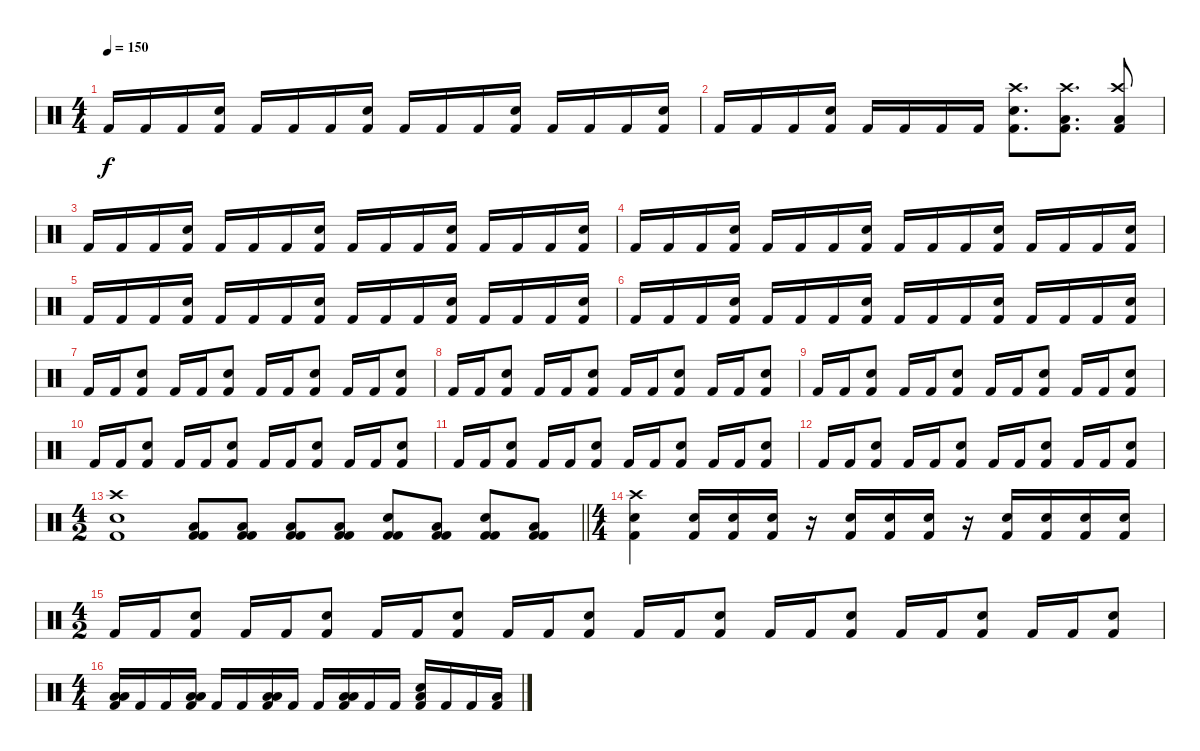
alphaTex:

\track "" {instrument percussion}
\staff {score}
\articulation defaults
\ts (4 4)
\tempo 150
\clef neutral
\ks c "Kick (hit) 2".16{dy f} "Kick (hit) 2".16 "Kick (hit) 2".16
("Kick (hit) 2" "Snare (hit) 2").16 "Kick (hit) 2".16 "Kick (hit) 2".16 "Kick (hit) 2".16 ("Kick (hit) 2" "Snare (hit) 2").16 "Kick (hit) 2".16 "Kick (hit) 2".16 "Kick (hit) 2".16 ("Kick (hit) 2" "Snare (hit) 2").16 "Kick (hit) 2".16 "Kick (hit) 2".16 "Kick (hit) 2".16 ("Kick (hit) 2" "Snare (hit) 2").16 |
"Kick (hit) 2".16 "Kick (hit) 2".16 "Kick (hit) 2".16 ("Kick (hit) 2" "Snare (hit) 2").16 "Kick (hit) 2".16 "Kick (hit) 2".16 "Kick (hit) 2".16 "Kick (hit) 2".16 ("Kick (hit) 2" "Snare (hit) 2" "Crash high (hit)").8{d} ("Kick (hit) 2" "Low Tom (hit)" "Crash high (hit)").8{d} ("Kick (hit) 2" "Low Tom (hit)" "Crash high (hit)").8 |
"Kick (hit) 2".16 "Kick (hit) 2".16 "Kick (hit) 2".16 ("Kick (hit) 2" "Snare (hit) 2").16 "Kick (hit) 2".16 "Kick (hit) 2".16 "Kick (hit) 2".16 ("Kick (hit) 2" "Snare (hit) 2").16 "Kick (hit) 2".16 "Kick (hit) 2".16 "Kick (hit) 2".16 ("Kick (hit) 2" "Snare (hit) 2").16 "Kick (hit) 2".16 "Kick (hit) 2".16 "Kick (hit) 2".16 ("Kick (hit) 2" "Snare (hit) 2").16 |
"Kick (hit) 2".16 "Kick (hit) 2".16 "Kick (hit) 2".16 ("Kick (hit) 2" "Snare (hit) 2").16 "Kick (hit) 2".16 "Kick (hit) 2".16 "Kick (hit) 2".16 ("Kick (hit) 2" "Snare (hit) 2").16 "Kick (hit) 2".16 "Kick (hit) 2".16 "Kick (hit) 2".16 ("Kick (hit) 2" "Snare (hit) 2").16 "Kick (hit) 2".16 "Kick (hit) 2".16 "Kick (hit) 2".16 ("Kick (hit) 2" "Snare (hit) 2").16 |
"Kick (hit) 2".16 "Kick (hit) 2".16 "Kick (hit) 2".16 ("Kick (hit) 2" "Snare (hit) 2").16 "Kick (hit) 2".16 "Kick (hit) 2".16 "Kick (hit) 2".16 ("Kick (hit) 2" "Snare (hit) 2").16 "Kick (hit) 2".16 "Kick (hit) 2".16 "Kick (hit) 2".16 ("Kick (hit) 2" "Snare (hit) 2").16 "Kick (hit) 2".16 "Kick (hit) 2".16 "Kick (hit) 2".16 ("Kick (hit) 2" "Snare (hit) 2").16 |
"Kick (hit) 2".16 "Kick (hit) 2".16 "Kick (hit) 2".16 ("Kick (hit) 2" "Snare (hit) 2").16 "Kick (hit) 2".16 "Kick (hit) 2".16 "Kick (hit) 2".16 ("Kick (hit) 2" "Snare (hit) 2").16 "Kick (hit) 2".16 "Kick (hit) 2".16 "Kick (hit) 2".16 ("Kick (hit) 2" "Snare (hit) 2").16 "Kick (hit) 2".16 "Kick (hit) 2".16 "Kick (hit) 2".16 ("Kick (hit) 2" "Snare (hit) 2").16 |
"Kick (hit) 2".16 "Kick (hit) 2".16 ("Kick (hit) 2" "Snare (hit) 2").8 "Kick (hit) 2".16 "Kick (hit) 2".16 ("Kick (hit) 2" "Snare (hit) 2").8 "Kick (hit) 2".16 "Kick (hit) 2".16 ("Kick (hit) 2" "Snare (hit) 2").8 "Kick (hit) 2".16 "Kick (hit) 2".16 ("Kick (hit) 2" "Snare (hit) 2").8 |
"Kick (hit) 2".16 "Kick (hit) 2".16 ("Kick (hit) 2" "Snare (hit) 2").8 "Kick (hit) 2".16 "Kick (hit) 2".16 ("Kick (hit) 2" "Snare (hit) 2").8 "Kick (hit) 2".16 "Kick (hit) 2".16 ("Kick (hit) 2" "Snare (hit) 2").8 "Kick (hit) 2".16 "Kick (hit) 2".16 ("Kick (hit) 2" "Snare (hit) 2").8 |
"Kick (hit) 2".16 "Kick (hit) 2".16 ("Kick (hit) 2" "Snare (hit) 2").8 "Kick (hit) 2".16 "Kick (hit) 2".16 ("Kick (hit) 2" "Snare (hit) 2").8 "Kick (hit) 2".16 "Kick (hit) 2".16 ("Kick (hit) 2" "Snare (hit) 2").8 "Kick (hit) 2".16 "Kick (hit) 2".16 ("Kick (hit) 2" "Snare (hit) 2").8 |
"Kick (hit) 2".16 "Kick (hit) 2".16 ("Kick (hit) 2" "Snare (hit) 2").8 "Kick (hit) 2".16 "Kick (hit) 2".16 ("Kick (hit) 2" "Snare (hit) 2").8 "Kick (hit) 2".16 "Kick (hit) 2".16 ("Kick (hit) 2" "Snare (hit) 2").8 "Kick (hit) 2".16 "Kick (hit) 2".16 ("Kick (hit) 2" "Snare (hit) 2").8 |
"Kick (hit) 2".16 "Kick (hit) 2".16 ("Kick (hit) 2" "Snare (hit) 2").8 "Kick (hit) 2".16 "Kick (hit) 2".16 ("Kick (hit) 2" "Snare (hit) 2").8 "Kick (hit) 2".16 "Kick (hit) 2".16 ("Kick (hit) 2" "Snare (hit) 2").8 "Kick (hit) 2".16 "Kick (hit) 2".16 ("Kick (hit) 2" "Snare (hit) 2").8 |
"Kick (hit) 2".16 "Kick (hit) 2".16 ("Kick (hit) 2" "Snare (hit) 2").8 "Kick (hit) 2".16 "Kick (hit) 2".16 ("Kick (hit) 2" "Snare (hit) 2").8 "Kick (hit) 2".16 "Kick (hit) 2".16 ("Kick (hit) 2" "Snare (hit) 2").8 "Kick (hit) 2".16 "Kick (hit) 2".16 ("Kick (hit) 2" "Snare (hit) 2").8 |
\ts (4 2)
\barLineRight lightlight
("Kick (hit) 2" "Snare (hit) 2" "Crash high (hit)").1 ("Kick (hit) 2" "Kick (hit) 2" "Low Tom (hit)").8 ("Kick (hit) 2" "Kick (hit) 2" "Low Tom (hit)").8 ("Kick (hit) 2" "Kick (hit) 2" "Low Tom (hit)").8 ("Kick (hit) 2" "Kick (hit) 2" "Low Tom (hit)").8 ("Kick (hit) 2" "Kick (hit) 2" "Snare (hit) 2").8 ("Kick (hit) 2" "Kick (hit) 2" "Low Tom (hit)").8 ("Kick (hit) 2" "Kick (hit) 2" "Snare (hit) 2").8 ("Kick (hit) 2" "Kick (hit) 2" "Low Tom (hit)").8 |
\ts (4 4)
("Kick (hit) 2" "Snare (hit) 2" "Crash high (hit)").4 ("Kick (hit) 2" "Snare (hit) 2").16 ("Kick (hit) 2" "Snare (hit) 2").16 ("Kick (hit) 2" "Snare (hit) 2").16 r.16 ("Kick (hit) 2" "Snare (hit) 2").16 ("Kick (hit) 2" "Snare (hit) 2").16 ("Kick (hit) 2" "Snare (hit) 2").16 r.16 ("Kick (hit) 2" "Snare (hit) 2").16 ("Kick (hit) 2" "Snare (hit) 2").16 ("Kick (hit) 2" "Snare (hit) 2").16 ("Kick (hit) 2" "Snare (hit) 2").16 |
\ts (4 2)
"Kick (hit) 2".16 "Kick (hit) 2".16 ("Kick (hit) 2" "Snare (hit) 2").8 "Kick (hit) 2".16 "Kick (hit) 2".16 ("Kick (hit) 2" "Snare (hit) 2").8 "Kick (hit) 2".16 "Kick (hit) 2".16 ("Kick (hit) 2" "Snare (hit) 2").8 "Kick (hit) 2".16 "Kick (hit) 2".16 ("Kick (hit) 2" "Snare (hit) 2").8 "Kick (hit) 2".16 "Kick (hit) 2".16 ("Kick (hit) 2" "Snare (hit) 2").8 "Kick (hit) 2".16 "Kick (hit) 2".16 ("Kick (hit) 2" "Snare (hit) 2").8 "Kick (hit) 2".16 "Kick (hit) 2".16 ("Kick (hit) 2" "Snare (hit) 2").8 "Kick (hit) 2".16 "Kick (hit) 2".16 ("Kick (hit) 2" "Snare (hit) 2").8 |
\ts (4 4)
("Kick (hit) 2" "Low Tom (hit)" "Low Tom (hit)").16 "Kick (hit) 2".16 "Kick (hit) 2".16 ("Kick (hit) 2" "Low Tom (hit)" "Low Tom (hit)").16 "Kick (hit) 2".16 "Kick (hit) 2".16 ("Kick (hit) 2" "Low Tom (hit)" "Low Tom (hit)").16 "Kick (hit) 2".16 "Kick (hit) 2".16 ("Kick (hit) 2" "Low Tom (hit)" "Low Tom (hit)").16 "Kick (hit) 2".16 "Kick (hit) 2".16 ("Kick (hit) 2" "Low Tom (hit)" "Snare (hit) 2").16 "Kick (hit) 2".16 "Kick (hit) 2".16 ("Kick (hit) 2" "Low Tom (hit)").16
